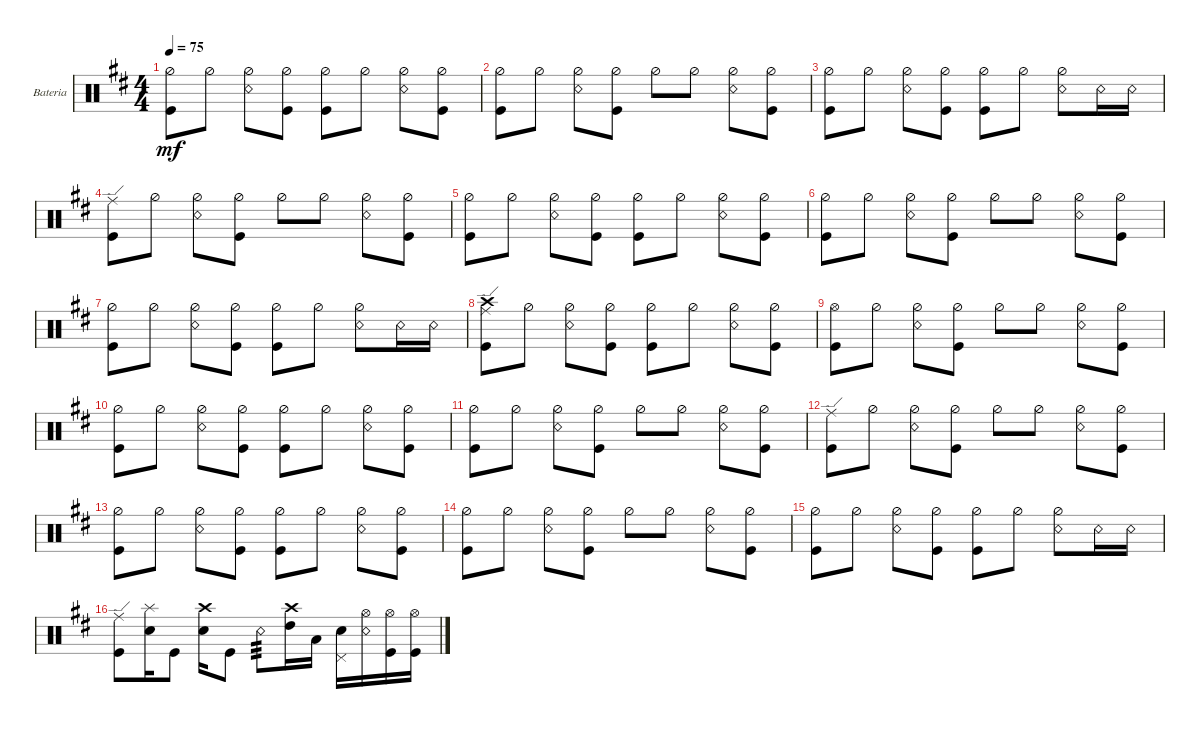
\defaultSystemsLayout 4
\bracketExtendMode groupsimilarinstruments
\firstSystemTrackNameOrientation horizontal
\otherSystemsTrackNameOrientation horizontal
\track ("Bateria" "Bateria") {multiBarRest instrument percussion}
\staff {score}
\articulation defaults
\ts (4 4)
\tempo 75
\clef neutral
\ks d
("Hi-Hat (half)" "Kick (hit)").8{dy mf} "Hi-Hat (half)".8 ("Hi-Hat (half)" "Snare (rim shot)").8 ("Hi-Hat (half)" "Kick (hit)").8 ("Hi-Hat (half)" "Kick (hit)").8 "Hi-Hat (half)".8 ("Snare (rim shot)" "Hi-Hat (half)").8 ("Hi-Hat (half)" "Kick (hit)").8 |
("Hi-Hat (half)" "Kick (hit)").8 "Hi-Hat (half)".8 ("Hi-Hat (half)" "Snare (rim shot)").8 ("Hi-Hat (half)" "Kick (hit)").8 "Hi-Hat (half)".8 "Hi-Hat (half)".8 ("Snare (rim shot)" "Hi-Hat (half)").8 ("Hi-Hat (half)" "Kick (hit)").8 |
("Hi-Hat (half)" "Kick (hit)").8 "Hi-Hat (half)".8 ("Hi-Hat (half)" "Snare (rim shot)").8 ("Hi-Hat (half)" "Kick (hit)").8 ("Hi-Hat (half)" "Kick (hit)").8 "Hi-Hat (half)".8 ("Snare (rim shot)" "Hi-Hat (half)").8 "Snare (rim shot)".16 "Snare (rim shot)".16 |
("Kick (hit)" "Ride (edge)").8 "Hi-Hat (half)".8 ("Hi-Hat (half)" "Snare (rim shot)").8 ("Hi-Hat (half)" "Kick (hit)").8 "Hi-Hat (half)".8 "Hi-Hat (half)".8 ("Hi-Hat (half)" "Snare (rim shot)").8 ("Hi-Hat (half)" "Kick (hit)").8 |
("Hi-Hat (half)" "Kick (hit)").8 "Hi-Hat (half)".8 ("Hi-Hat (half)" "Snare (rim shot)").8 ("Hi-Hat (half)" "Kick (hit)").8 ("Hi-Hat (half)" "Kick (hit)").8 "Hi-Hat (half)".8 ("Snare (rim shot)" "Hi-Hat (half)").8 ("Hi-Hat (half)" "Kick (hit)").8 |
("Hi-Hat (half)" "Kick (hit)").8 "Hi-Hat (half)".8 ("Hi-Hat (half)" "Snare (rim shot)").8 ("Hi-Hat (half)" "Kick (hit)").8 "Hi-Hat (half)".8 "Hi-Hat (half)".8 ("Snare (rim shot)" "Hi-Hat (half)").8 ("Hi-Hat (half)" "Kick (hit)").8 |
("Hi-Hat (half)" "Kick (hit)").8 "Hi-Hat (half)".8 ("Hi-Hat (half)" "Snare (rim shot)").8 ("Hi-Hat (half)" "Kick (hit)").8 ("Hi-Hat (half)" "Kick (hit)").8 "Hi-Hat (half)".8 ("Snare (rim shot)" "Hi-Hat (half)").8 "Snare (rim shot)".16 "Snare (rim shot)".16 |
("Kick (hit)" "Crash high (hit)" "Ride (edge)").8 "Hi-Hat (half)".8 ("Hi-Hat (half)" "Snare (rim shot)").8 ("Hi-Hat (half)" "Kick (hit)").8 ("Hi-Hat (half)" "Kick (hit)").8 "Hi-Hat (half)".8 ("Snare (rim shot)" "Hi-Hat (half)").8 ("Hi-Hat (half)" "Kick (hit)").8 |
("Kick (hit)" "Hi-Hat (open)").8 "Hi-Hat (half)".8 ("Hi-Hat (half)" "Snare (rim shot)").8 ("Hi-Hat (half)" "Kick (hit)").8 "Hi-Hat (half)".8 "Hi-Hat (half)".8 ("Hi-Hat (half)" "Snare (rim shot)").8 ("Hi-Hat (half)" "Kick (hit)").8 |
("Hi-Hat (half)" "Kick (hit)").8 "Hi-Hat (half)".8 ("Hi-Hat (half)" "Snare (rim shot)").8 ("Hi-Hat (half)" "Kick (hit)").8 ("Hi-Hat (half)" "Kick (hit)").8 "Hi-Hat (half)".8 ("Snare (rim shot)" "Hi-Hat (half)").8 ("Hi-Hat (half)" "Kick (hit)").8 |
("Hi-Hat (half)" "Kick (hit)").8 "Hi-Hat (half)".8 ("Hi-Hat (half)" "Snare (rim shot)").8 ("Hi-Hat (half)" "Kick (hit)").8 "Hi-Hat (half)".8 "Hi-Hat (half)".8 ("Snare (rim shot)" "Hi-Hat (half)").8 ("Hi-Hat (half)" "Kick (hit)").8 |
("Kick (hit)" "Ride (edge)").8 "Hi-Hat (half)".8 ("Hi-Hat (half)" "Snare (rim shot)").8 ("Hi-Hat (half)" "Kick (hit)").8 "Hi-Hat (half)".8 "Hi-Hat (half)".8 ("Hi-Hat (half)" "Snare (rim shot)").8 ("Hi-Hat (half)" "Kick (hit)").8 |
("Hi-Hat (half)" "Kick (hit)").8 "Hi-Hat (half)".8 ("Hi-Hat (half)" "Snare (rim shot)").8 ("Hi-Hat (half)" "Kick (hit)").8 ("Hi-Hat (half)" "Kick (hit)").8 "Hi-Hat (half)".8 ("Snare (rim shot)" "Hi-Hat (half)").8 ("Hi-Hat (half)" "Kick (hit)").8 |
("Hi-Hat (half)" "Kick (hit)").8 "Hi-Hat (half)".8 ("Hi-Hat (half)" "Snare (rim shot)").8 ("Hi-Hat (half)" "Kick (hit)").8 "Hi-Hat (half)".8 "Hi-Hat (half)".8 ("Snare (rim shot)" "Hi-Hat (half)").8 ("Hi-Hat (half)" "Kick (hit)").8 |
("Hi-Hat (half)" "Kick (hit)").8 "Hi-Hat (half)".8 ("Hi-Hat (half)" "Snare (rim shot)").8 ("Hi-Hat (half)" "Kick (hit)").8 ("Hi-Hat (half)" "Kick (hit)").8 "Hi-Hat (half)".8 ("Snare (rim shot)" "Hi-Hat (half)").8 "Snare (rim shot)".16 "Snare (rim shot)".16 |
("Ride (edge)" "Kick (hit)").8 ("Snare (hit) 2" "Splash (hit)").16 "Kick (hit)".8 ("Snare (hit) 2" "Crash high (hit)").16 "Kick (hit)".8 "Snare (rim shot)".8{tp 3} ("High Tom (hit)" "Crash high (hit)").16 "Low Tom (hit)".16 ("Snare (hit) 2" "Pedal Hi-Hat (hit)").16 ("Snare (rim shot)" "Hi-Hat (open)").16 ("Kick (hit)" "Hi-Hat (open)").16 ("Kick (hit)" "Hi-Hat (open)").16
